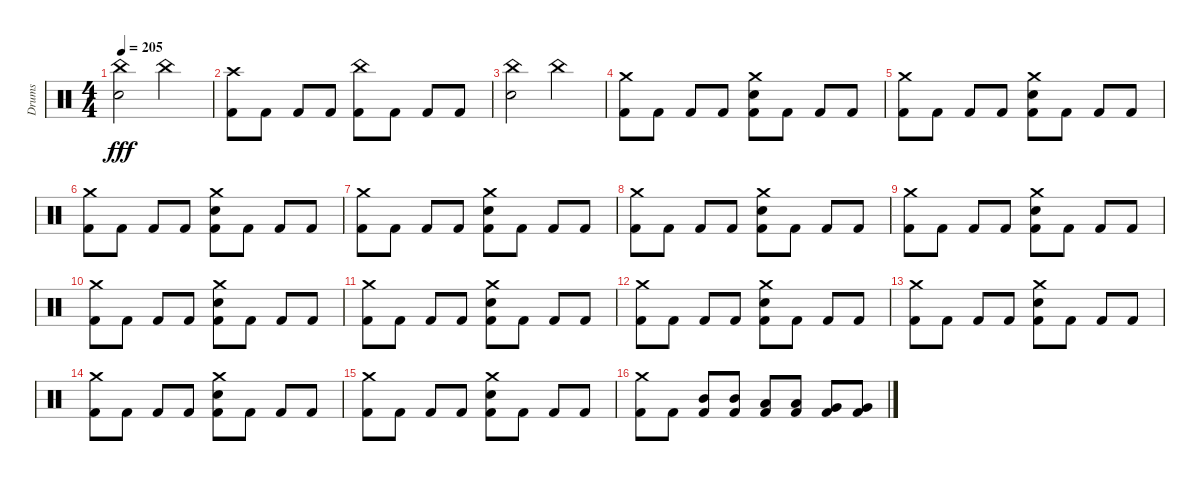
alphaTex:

\track ("Drums" "Drums") {instrument percussion}
\staff {score}
\articulation defaults
\ts (4 4)
\tempo 205
\clef neutral
\ks c
("China (hit)" "Snare (hit) 2").2{dy fff} "China (hit)".2 |
("Crash high (hit)" "Kick (hit) 2").8 "Kick (hit) 2".8 "Kick (hit) 2".8 "Kick (hit) 2".8 ("China (hit)" "Kick (hit) 2").8 "Kick (hit) 2".8 "Kick (hit) 2".8 "Kick (hit) 2".8 |
("China (hit)" "Snare (hit) 2").2 "China (hit)".2 |
("Crash medium (hit)" "Kick (hit) 2").8 "Kick (hit) 2".8 "Kick (hit) 2".8 "Kick (hit) 2".8 ("Crash medium (hit)" "Snare (hit) 2" "Kick (hit) 2").8 "Kick (hit) 2".8 "Kick (hit) 2".8 "Kick (hit) 2".8 |
("Crash medium (hit)" "Kick (hit) 2").8 "Kick (hit) 2".8 "Kick (hit) 2".8 "Kick (hit) 2".8 ("Crash medium (hit)" "Snare (hit) 2" "Kick (hit) 2").8 "Kick (hit) 2".8 "Kick (hit) 2".8 "Kick (hit) 2".8 |
("Crash medium (hit)" "Kick (hit) 2").8 "Kick (hit) 2".8 "Kick (hit) 2".8 "Kick (hit) 2".8 ("Crash medium (hit)" "Snare (hit) 2" "Kick (hit) 2").8 "Kick (hit) 2".8 "Kick (hit) 2".8 "Kick (hit) 2".8 |
("Crash medium (hit)" "Kick (hit) 2").8 "Kick (hit) 2".8 "Kick (hit) 2".8 "Kick (hit) 2".8 ("Crash medium (hit)" "Snare (hit) 2" "Kick (hit) 2").8 "Kick (hit) 2".8 "Kick (hit) 2".8 "Kick (hit) 2".8 |
("Crash medium (hit)" "Kick (hit) 2").8 "Kick (hit) 2".8 "Kick (hit) 2".8 "Kick (hit) 2".8 ("Crash medium (hit)" "Snare (hit) 2" "Kick (hit) 2").8 "Kick (hit) 2".8 "Kick (hit) 2".8 "Kick (hit) 2".8 |
("Crash medium (hit)" "Kick (hit) 2").8 "Kick (hit) 2".8 "Kick (hit) 2".8 "Kick (hit) 2".8 ("Crash medium (hit)" "Snare (hit) 2" "Kick (hit) 2").8 "Kick (hit) 2".8 "Kick (hit) 2".8 "Kick (hit) 2".8 |
("Crash medium (hit)" "Kick (hit) 2").8 "Kick (hit) 2".8 "Kick (hit) 2".8 "Kick (hit) 2".8 ("Crash medium (hit)" "Snare (hit) 2" "Kick (hit) 2").8 "Kick (hit) 2".8 "Kick (hit) 2".8 "Kick (hit) 2".8 |
("Crash medium (hit)" "Kick (hit) 2").8 "Kick (hit) 2".8 "Kick (hit) 2".8 "Kick (hit) 2".8 ("Crash medium (hit)" "Snare (hit) 2" "Kick (hit) 2").8 "Kick (hit) 2".8 "Kick (hit) 2".8 "Kick (hit) 2".8 |
("Crash medium (hit)" "Kick (hit) 2").8 "Kick (hit) 2".8 "Kick (hit) 2".8 "Kick (hit) 2".8 ("Crash medium (hit)" "Snare (hit) 2" "Kick (hit) 2").8 "Kick (hit) 2".8 "Kick (hit) 2".8 "Kick (hit) 2".8 |
("Crash medium (hit)" "Kick (hit) 2").8 "Kick (hit) 2".8 "Kick (hit) 2".8 "Kick (hit) 2".8 ("Crash medium (hit)" "Snare (hit) 2" "Kick (hit) 2").8 "Kick (hit) 2".8 "Kick (hit) 2".8 "Kick (hit) 2".8 |
("Crash medium (hit)" "Kick (hit) 2").8 "Kick (hit) 2".8 "Kick (hit) 2".8 "Kick (hit) 2".8 ("Crash medium (hit)" "Snare (hit) 2" "Kick (hit) 2").8 "Kick (hit) 2".8 "Kick (hit) 2".8 "Kick (hit) 2".8 |
("Crash medium (hit)" "Kick (hit) 2").8 "Kick (hit) 2".8 "Kick (hit) 2".8 "Kick (hit) 2".8 ("Crash medium (hit)" "Snare (hit) 2" "Kick (hit) 2").8 "Kick (hit) 2".8 "Kick (hit) 2".8 "Kick (hit) 2".8 |
("Crash medium (hit)" "Kick (hit) 2").8 "Kick (hit) 2".8 ("Mid Tom (hit)" "Kick (hit) 2").8 ("Mid Tom (hit)" "Kick (hit) 2").8 ("Low Tom (hit)" "Kick (hit) 2").8 ("Low Tom (hit)" "Kick (hit) 2").8 ("Very Low Tom (hit)" "Kick (hit) 2").8 ("Very Low Tom (hit)" "Kick (hit) 2").8
